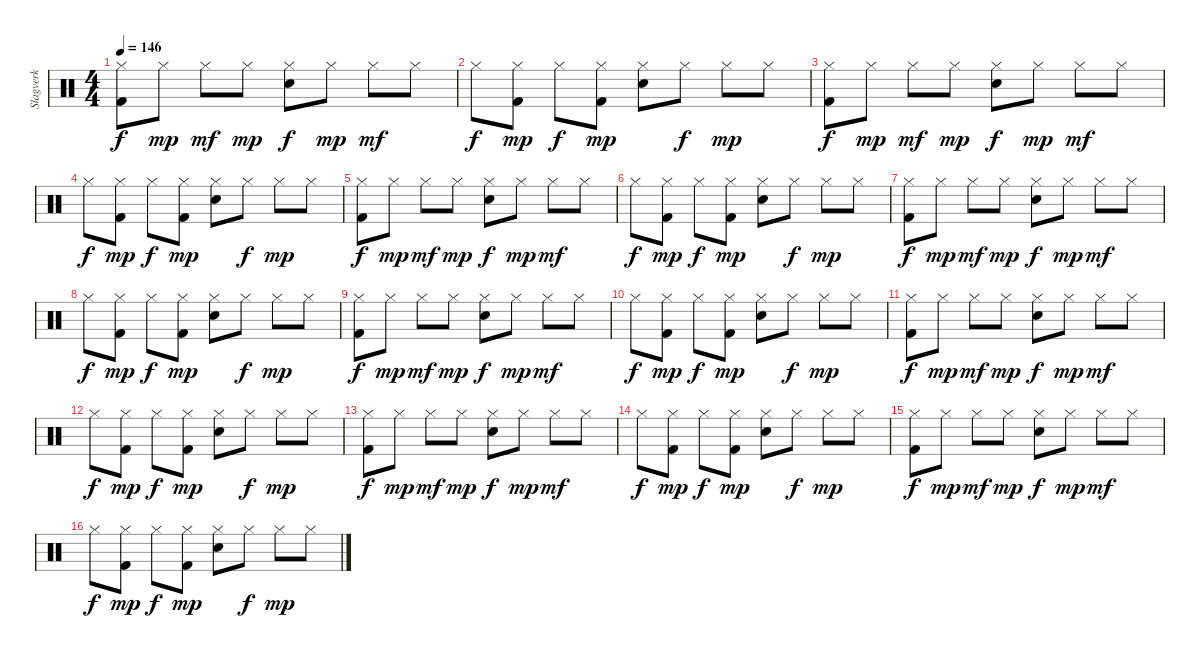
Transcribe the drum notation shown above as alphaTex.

\track ("Slagverk" "Slagverk") {instrument percussion}
\staff {score}
\articulation defaults
\ts (4 4)
\tempo 146
\clef neutral
\ks c
("Hi-Hat (closed)" "Kick (hit) 2").8{dy f} "Hi-Hat (closed)".8{dy mp} "Hi-Hat (closed)".8{dy mf} "Hi-Hat (closed)".8{dy mp} ("Hi-Hat (closed)" "Snare (hit) 2").8{dy f} "Hi-Hat (closed)".8{dy mp} "Hi-Hat (closed)".8{dy mf} "Hi-Hat (closed)".8 |
"Hi-Hat (closed)".8{dy f} ("Hi-Hat (closed)" "Kick (hit) 2").8{dy mp} "Hi-Hat (closed)".8{dy f} ("Hi-Hat (closed)" "Kick (hit) 2").8{dy mp} ("Hi-Hat (closed)" "Snare (hit) 2").8 "Hi-Hat (closed)".8{dy f} "Hi-Hat (closed)".8{dy mp} "Hi-Hat (closed)".8 |
("Hi-Hat (closed)" "Kick (hit) 2").8{dy f} "Hi-Hat (closed)".8{dy mp} "Hi-Hat (closed)".8{dy mf} "Hi-Hat (closed)".8{dy mp} ("Hi-Hat (closed)" "Snare (hit) 2").8{dy f} "Hi-Hat (closed)".8{dy mp} "Hi-Hat (closed)".8{dy mf} "Hi-Hat (closed)".8 |
"Hi-Hat (closed)".8{dy f} ("Hi-Hat (closed)" "Kick (hit) 2").8{dy mp} "Hi-Hat (closed)".8{dy f} ("Hi-Hat (closed)" "Kick (hit) 2").8{dy mp} ("Hi-Hat (closed)" "Snare (hit) 2").8 "Hi-Hat (closed)".8{dy f} "Hi-Hat (closed)".8{dy mp} "Hi-Hat (closed)".8 |
("Hi-Hat (closed)" "Kick (hit) 2").8{dy f} "Hi-Hat (closed)".8{dy mp} "Hi-Hat (closed)".8{dy mf} "Hi-Hat (closed)".8{dy mp} ("Hi-Hat (closed)" "Snare (hit) 2").8{dy f} "Hi-Hat (closed)".8{dy mp} "Hi-Hat (closed)".8{dy mf} "Hi-Hat (closed)".8 |
"Hi-Hat (closed)".8{dy f} ("Hi-Hat (closed)" "Kick (hit) 2").8{dy mp} "Hi-Hat (closed)".8{dy f} ("Hi-Hat (closed)" "Kick (hit) 2").8{dy mp} ("Hi-Hat (closed)" "Snare (hit) 2").8 "Hi-Hat (closed)".8{dy f} "Hi-Hat (closed)".8{dy mp} "Hi-Hat (closed)".8 |
("Hi-Hat (closed)" "Kick (hit) 2").8{dy f} "Hi-Hat (closed)".8{dy mp} "Hi-Hat (closed)".8{dy mf} "Hi-Hat (closed)".8{dy mp} ("Hi-Hat (closed)" "Snare (hit) 2").8{dy f} "Hi-Hat (closed)".8{dy mp} "Hi-Hat (closed)".8{dy mf} "Hi-Hat (closed)".8 |
"Hi-Hat (closed)".8{dy f} ("Hi-Hat (closed)" "Kick (hit) 2").8{dy mp} "Hi-Hat (closed)".8{dy f} ("Hi-Hat (closed)" "Kick (hit) 2").8{dy mp} ("Hi-Hat (closed)" "Snare (hit) 2").8 "Hi-Hat (closed)".8{dy f} "Hi-Hat (closed)".8{dy mp} "Hi-Hat (closed)".8 |
("Hi-Hat (closed)" "Kick (hit) 2").8{dy f} "Hi-Hat (closed)".8{dy mp} "Hi-Hat (closed)".8{dy mf} "Hi-Hat (closed)".8{dy mp} ("Hi-Hat (closed)" "Snare (hit) 2").8{dy f} "Hi-Hat (closed)".8{dy mp} "Hi-Hat (closed)".8{dy mf} "Hi-Hat (closed)".8 |
"Hi-Hat (closed)".8{dy f} ("Hi-Hat (closed)" "Kick (hit) 2").8{dy mp} "Hi-Hat (closed)".8{dy f} ("Hi-Hat (closed)" "Kick (hit) 2").8{dy mp} ("Hi-Hat (closed)" "Snare (hit) 2").8 "Hi-Hat (closed)".8{dy f} "Hi-Hat (closed)".8{dy mp} "Hi-Hat (closed)".8 |
("Hi-Hat (closed)" "Kick (hit) 2").8{dy f} "Hi-Hat (closed)".8{dy mp} "Hi-Hat (closed)".8{dy mf} "Hi-Hat (closed)".8{dy mp} ("Hi-Hat (closed)" "Snare (hit) 2").8{dy f} "Hi-Hat (closed)".8{dy mp} "Hi-Hat (closed)".8{dy mf} "Hi-Hat (closed)".8 |
"Hi-Hat (closed)".8{dy f} ("Hi-Hat (closed)" "Kick (hit) 2").8{dy mp} "Hi-Hat (closed)".8{dy f} ("Hi-Hat (closed)" "Kick (hit) 2").8{dy mp} ("Hi-Hat (closed)" "Snare (hit) 2").8 "Hi-Hat (closed)".8{dy f} "Hi-Hat (closed)".8{dy mp} "Hi-Hat (closed)".8 |
("Hi-Hat (closed)" "Kick (hit) 2").8{dy f} "Hi-Hat (closed)".8{dy mp} "Hi-Hat (closed)".8{dy mf} "Hi-Hat (closed)".8{dy mp} ("Hi-Hat (closed)" "Snare (hit) 2").8{dy f} "Hi-Hat (closed)".8{dy mp} "Hi-Hat (closed)".8{dy mf} "Hi-Hat (closed)".8 |
"Hi-Hat (closed)".8{dy f} ("Hi-Hat (closed)" "Kick (hit) 2").8{dy mp} "Hi-Hat (closed)".8{dy f} ("Hi-Hat (closed)" "Kick (hit) 2").8{dy mp} ("Hi-Hat (closed)" "Snare (hit) 2").8 "Hi-Hat (closed)".8{dy f} "Hi-Hat (closed)".8{dy mp} "Hi-Hat (closed)".8 |
("Hi-Hat (closed)" "Kick (hit) 2").8{dy f} "Hi-Hat (closed)".8{dy mp} "Hi-Hat (closed)".8{dy mf} "Hi-Hat (closed)".8{dy mp} ("Hi-Hat (closed)" "Snare (hit) 2").8{dy f} "Hi-Hat (closed)".8{dy mp} "Hi-Hat (closed)".8{dy mf} "Hi-Hat (closed)".8 |
"Hi-Hat (closed)".8{dy f} ("Hi-Hat (closed)" "Kick (hit) 2").8{dy mp} "Hi-Hat (closed)".8{dy f} ("Hi-Hat (closed)" "Kick (hit) 2").8{dy mp} ("Hi-Hat (closed)" "Snare (hit) 2").8 "Hi-Hat (closed)".8{dy f} "Hi-Hat (closed)".8{dy mp} "Hi-Hat (closed)".8
